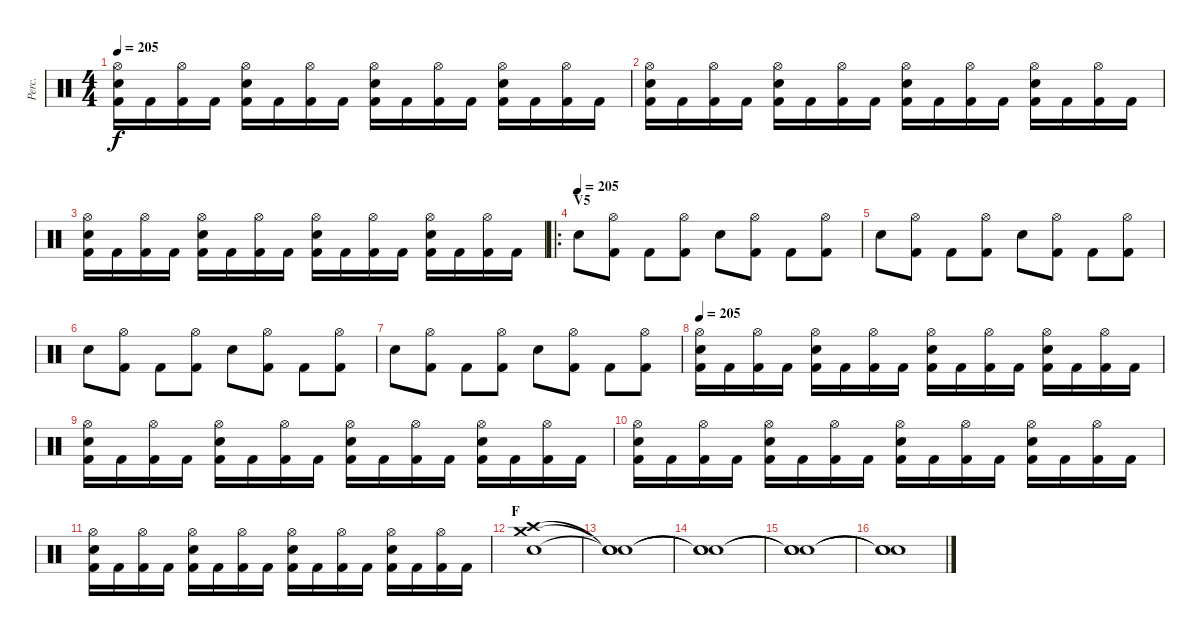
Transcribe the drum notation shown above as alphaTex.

\track ("Perc." "Perc.") {instrument percussion}
\staff {score}
\articulation defaults
\ts (4 4)
\tempo 205
\clef neutral
\ks c
("Hi-Hat (open)" "Kick (hit) 2" "Snare (hit) 2").16{dy f} "Kick (hit) 2".16 ("Hi-Hat (open)" "Kick (hit) 2").16 "Kick (hit) 2".16 ("Hi-Hat (open)" "Snare (hit) 2" "Kick (hit) 2").16 "Kick (hit) 2".16 ("Hi-Hat (open)" "Kick (hit) 2").16 "Kick (hit) 2".16 ("Hi-Hat (open)" "Snare (hit) 2" "Kick (hit) 2").16 "Kick (hit) 2".16 ("Hi-Hat (open)" "Kick (hit) 2").16 "Kick (hit) 2".16 ("Hi-Hat (open)" "Snare (hit) 2" "Kick (hit) 2").16 "Kick (hit) 2".16 ("Hi-Hat (open)" "Kick (hit) 2").16 "Kick (hit) 2".16 |
("Hi-Hat (open)" "Kick (hit) 2" "Snare (hit) 2").16 "Kick (hit) 2".16 ("Hi-Hat (open)" "Kick (hit) 2").16 "Kick (hit) 2".16 ("Hi-Hat (open)" "Snare (hit) 2" "Kick (hit) 2").16 "Kick (hit) 2".16 ("Hi-Hat (open)" "Kick (hit) 2").16 "Kick (hit) 2".16 ("Hi-Hat (open)" "Snare (hit) 2" "Kick (hit) 2").16 "Kick (hit) 2".16 ("Hi-Hat (open)" "Kick (hit) 2").16 "Kick (hit) 2".16 ("Hi-Hat (open)" "Snare (hit) 2" "Kick (hit) 2").16 "Kick (hit) 2".16 ("Hi-Hat (open)" "Kick (hit) 2").16 "Kick (hit) 2".16 |
("Hi-Hat (open)" "Kick (hit) 2" "Snare (hit) 2").16 "Kick (hit) 2".16 ("Hi-Hat (open)" "Kick (hit) 2").16 "Kick (hit) 2".16 ("Hi-Hat (open)" "Snare (hit) 2" "Kick (hit) 2").16 "Kick (hit) 2".16 ("Hi-Hat (open)" "Kick (hit) 2").16 "Kick (hit) 2".16 ("Hi-Hat (open)" "Snare (hit) 2" "Kick (hit) 2").16 "Kick (hit) 2".16 ("Hi-Hat (open)" "Kick (hit) 2").16 "Kick (hit) 2".16 ("Hi-Hat (open)" "Snare (hit) 2" "Kick (hit) 2").16 "Kick (hit) 2".16 ("Hi-Hat (open)" "Kick (hit) 2").16 "Kick (hit) 2".16 |
\ro
\section ("" "V5")
\tempo (205)
"Snare (hit) 2".8 ("Hi-Hat (open)" "Kick (hit) 2").8 "Kick (hit) 2".8 ("Hi-Hat (open)" "Kick (hit) 2").8 "Snare (hit) 2".8 ("Hi-Hat (open)" "Kick (hit) 2").8 "Kick (hit) 2".8 ("Hi-Hat (open)" "Kick (hit) 2").8 |
"Snare (hit) 2".8 ("Hi-Hat (open)" "Kick (hit) 2").8 "Kick (hit) 2".8 ("Hi-Hat (open)" "Kick (hit) 2").8 "Snare (hit) 2".8 ("Hi-Hat (open)" "Kick (hit) 2").8 "Kick (hit) 2".8 ("Hi-Hat (open)" "Kick (hit) 2").8 |
"Snare (hit) 2".8 ("Hi-Hat (open)" "Kick (hit) 2").8 "Kick (hit) 2".8 ("Hi-Hat (open)" "Kick (hit) 2").8 "Snare (hit) 2".8 ("Hi-Hat (open)" "Kick (hit) 2").8 "Kick (hit) 2".8 ("Hi-Hat (open)" "Kick (hit) 2").8 |
"Snare (hit) 2".8 ("Hi-Hat (open)" "Kick (hit) 2").8 "Kick (hit) 2".8 ("Hi-Hat (open)" "Kick (hit) 2").8 "Snare (hit) 2".8 ("Hi-Hat (open)" "Kick (hit) 2").8 "Kick (hit) 2".8 ("Hi-Hat (open)" "Kick (hit) 2").8 |
\tempo 205
("Hi-Hat (open)" "Kick (hit) 2" "Snare (hit) 2").16 "Kick (hit) 2".16 ("Hi-Hat (open)" "Kick (hit) 2").16 "Kick (hit) 2".16 ("Hi-Hat (open)" "Snare (hit) 2" "Kick (hit) 2").16 "Kick (hit) 2".16 ("Hi-Hat (open)" "Kick (hit) 2").16 "Kick (hit) 2".16 ("Hi-Hat (open)" "Snare (hit) 2" "Kick (hit) 2").16 "Kick (hit) 2".16 ("Hi-Hat (open)" "Kick (hit) 2").16 "Kick (hit) 2".16 ("Hi-Hat (open)" "Snare (hit) 2" "Kick (hit) 2").16 "Kick (hit) 2".16 ("Hi-Hat (open)" "Kick (hit) 2").16 "Kick (hit) 2".16 |
("Hi-Hat (open)" "Kick (hit) 2" "Snare (hit) 2").16 "Kick (hit) 2".16 ("Hi-Hat (open)" "Kick (hit) 2").16 "Kick (hit) 2".16 ("Hi-Hat (open)" "Snare (hit) 2" "Kick (hit) 2").16 "Kick (hit) 2".16 ("Hi-Hat (open)" "Kick (hit) 2").16 "Kick (hit) 2".16 ("Hi-Hat (open)" "Snare (hit) 2" "Kick (hit) 2").16 "Kick (hit) 2".16 ("Hi-Hat (open)" "Kick (hit) 2").16 "Kick (hit) 2".16 ("Hi-Hat (open)" "Snare (hit) 2" "Kick (hit) 2").16 "Kick (hit) 2".16 ("Hi-Hat (open)" "Kick (hit) 2").16 "Kick (hit) 2".16 |
("Hi-Hat (open)" "Kick (hit) 2" "Snare (hit) 2").16 "Kick (hit) 2".16 ("Hi-Hat (open)" "Kick (hit) 2").16 "Kick (hit) 2".16 ("Hi-Hat (open)" "Snare (hit) 2" "Kick (hit) 2").16 "Kick (hit) 2".16 ("Hi-Hat (open)" "Kick (hit) 2").16 "Kick (hit) 2".16 ("Hi-Hat (open)" "Snare (hit) 2" "Kick (hit) 2").16 "Kick (hit) 2".16 ("Hi-Hat (open)" "Kick (hit) 2").16 "Kick (hit) 2".16 ("Hi-Hat (open)" "Snare (hit) 2" "Kick (hit) 2").16 "Kick (hit) 2".16 ("Hi-Hat (open)" "Kick (hit) 2").16 "Kick (hit) 2".16 |
("Hi-Hat (open)" "Kick (hit) 2" "Snare (hit) 2").16 "Kick (hit) 2".16 ("Hi-Hat (open)" "Kick (hit) 2").16 "Kick (hit) 2".16 ("Hi-Hat (open)" "Snare (hit) 2" "Kick (hit) 2").16 "Kick (hit) 2".16 ("Hi-Hat (open)" "Kick (hit) 2").16 "Kick (hit) 2".16 ("Hi-Hat (open)" "Snare (hit) 2" "Kick (hit) 2").16 "Kick (hit) 2".16 ("Hi-Hat (open)" "Kick (hit) 2").16 "Kick (hit) 2".16 ("Hi-Hat (open)" "Snare (hit) 2" "Kick (hit) 2").16 "Kick (hit) 2".16 ("Hi-Hat (open)" "Kick (hit) 2").16 "Kick (hit) 2".16 |
\section ("" "F")
("Crash high (hit)" "Crash medium (hit)" "Snare (hit) 2").1 |
("Snare (hit)"{t} "Snare (hit)"{t} "Snare (hit)"{t}).1 |
("Snare (hit)"{t} "Snare (hit)"{t} "Snare (hit)"{t}).1{volume 0} |
("Snare (hit)"{t} "Snare (hit)"{t} "Snare (hit)"{t}).1 |
("Snare (hit)"{t} "Snare (hit)"{t} "Snare (hit)"{t}).1
